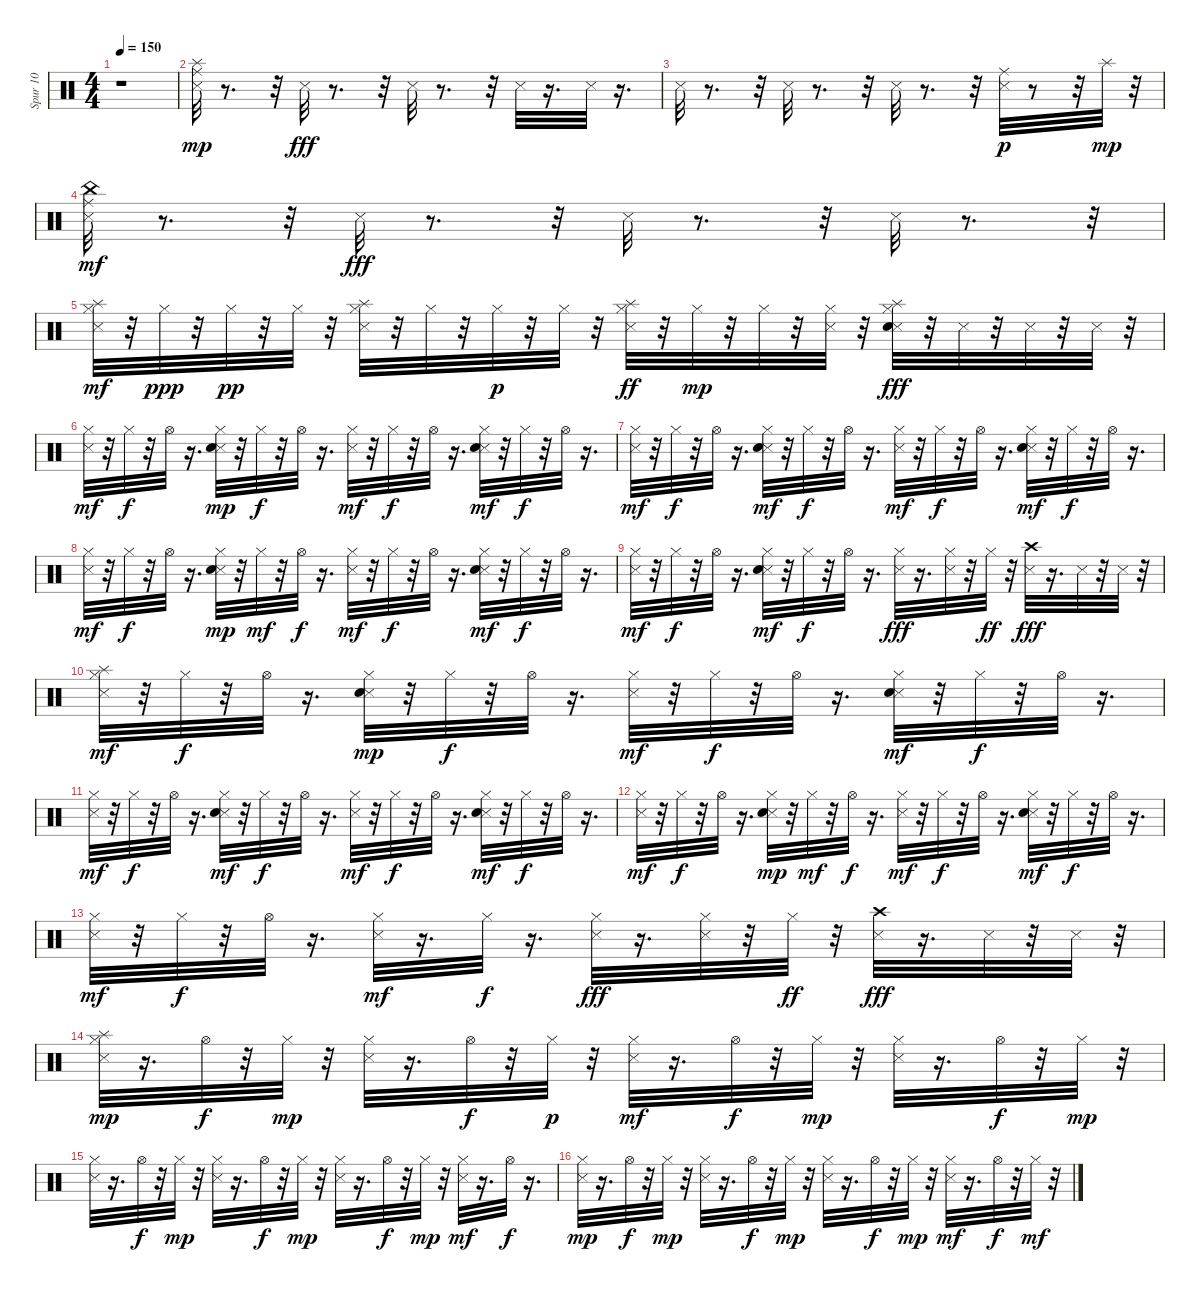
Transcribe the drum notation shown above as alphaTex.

\track ("Spur 10" "Spur 10") {instrument percussion}
\staff {score}
\articulation defaults
\ts (4 4)
\tempo 150
\clef neutral
\ks c
r.1{dy mp} |
("Metronome (hit)" "Ride (middle)" "Splash (hit)").32 r.8{d} r.32 "Metronome (hit)".32{dy fff} r.8{d} r.32 "Metronome (hit)".32 r.8{d} r.32 "Metronome (hit)".32 r.16{d} "Metronome (hit)".32 r.16{d} |
"Metronome (hit)".32 r.8{d} r.32 "Metronome (hit)".32 r.8{d} r.32 "Metronome (hit)".32 r.8{d} r.32 ("Metronome (hit)" "Ride (middle)").32{dy p} r.8 r.32 "Splash (hit)".32{dy mp} r.32 |
("Metronome (hit)" "Ride (middle)" "China (hit)").32{dy mf} r.8{d} r.32 "Metronome (hit)".32{dy fff} r.8{d} r.32 "Metronome (hit)".32 r.8{d} r.32 "Metronome (hit)".32 r.8{d} r.32 |
("Metronome (hit)" "Hi-Hat (closed)" "Splash (hit)").32{dy mf} r.32 "Hi-Hat (closed)".32{dy ppp} r.32 "Hi-Hat (closed)".32{dy pp} r.32 "Hi-Hat (closed)".32 r.32 ("Metronome (hit)" "Hi-Hat (closed)" "Splash (hit)").32 r.32 "Hi-Hat (closed)".32 r.32 "Hi-Hat (closed)".32{dy p} r.32 "Hi-Hat (closed)".32 r.32 ("Metronome (hit)" "Hi-Hat (closed)" "Splash (hit)").32{dy ff} r.32 "Hi-Hat (closed)".32{dy mp} r.32 "Hi-Hat (closed)".32 r.32 ("Metronome (hit)" "Hi-Hat (closed)").32 r.32 ("Metronome (hit)" "Hand Clap (hit)" "Hi-Hat (closed)" "Splash (hit)").32{dy fff} r.32 "Metronome (hit)".32 r.32 "Metronome (hit)".32 r.32 "Metronome (hit)".32 r.32 |
("Metronome (hit)" "Hi-Hat (closed)").32{dy mf} r.32 "Hi-Hat (closed)".32{dy f} r.32 "Hi-Hat (open)".32 r.16{d} ("Metronome (hit)" "Snare (hit) 2" "Hi-Hat (closed)").32{dy mp} r.32 "Hi-Hat (closed)".32{dy f} r.32 "Hi-Hat (open)".32 r.16{d} ("Metronome (hit)" "Hi-Hat (closed)").32{dy mf} r.32 "Hi-Hat (closed)".32{dy f} r.32 "Hi-Hat (open)".32 r.16{d} ("Metronome (hit)" "Snare (hit) 2" "Hi-Hat (closed)").32{dy mf} r.32 "Hi-Hat (closed)".32{dy f} r.32 "Hi-Hat (open)".32 r.16{d} |
("Metronome (hit)" "Hi-Hat (closed)").32{dy mf} r.32 "Hi-Hat (closed)".32{dy f} r.32 "Hi-Hat (open)".32 r.16{d} ("Metronome (hit)" "Snare (hit) 2" "Hi-Hat (closed)").32{dy mf} r.32 "Hi-Hat (closed)".32{dy f} r.32 "Hi-Hat (open)".32 r.16{d} ("Metronome (hit)" "Hi-Hat (closed)").32{dy mf} r.32 "Hi-Hat (closed)".32{dy f} r.32 "Hi-Hat (open)".32 r.16{d} ("Metronome (hit)" "Snare (hit) 2" "Hi-Hat (closed)").32{dy mf} r.32 "Hi-Hat (closed)".32{dy f} r.32 "Hi-Hat (open)".32 r.16{d} |
("Metronome (hit)" "Hi-Hat (closed)").32{dy mf} r.32 "Hi-Hat (closed)".32{dy f} r.32 "Hi-Hat (open)".32 r.16{d} ("Metronome (hit)" "Snare (hit) 2" "Hi-Hat (closed)").32{dy mp} r.32 "Hi-Hat (closed)".32{dy mf} r.32 "Hi-Hat (open)".32{dy f} r.16{d} ("Metronome (hit)" "Hi-Hat (closed)").32{dy mf} r.32 "Hi-Hat (closed)".32{dy f} r.32 "Hi-Hat (open)".32 r.16{d} ("Metronome (hit)" "Snare (hit) 2" "Hi-Hat (closed)").32{dy mf} r.32 "Hi-Hat (closed)".32{dy f} r.32 "Hi-Hat (open)".32 r.16{d} |
("Metronome (hit)" "Hi-Hat (closed)").32{dy mf} r.32 "Hi-Hat (closed)".32{dy f} r.32 "Hi-Hat (open)".32 r.16{d} ("Metronome (hit)" "Snare (hit) 2" "Hi-Hat (closed)").32{dy mf} r.32 "Hi-Hat (closed)".32{dy f} r.32 "Hi-Hat (open)".32 r.16{d} ("Metronome (hit)" "Hi-Hat (closed)").32{dy fff} r.16{d} ("Metronome (hit)" "Hi-Hat (closed)").32 r.32 "Hi-Hat (closed)".32{dy ff} r.32 ("Metronome (hit)" "Crash high (hit)").32{dy fff} r.16{d} "Metronome (hit)".32 r.32 "Metronome (hit)".32 r.32 |
("Splash (hit)" "Metronome (hit)" "Hi-Hat (closed)").32{dy mf} r.32 "Hi-Hat (closed)".32{dy f} r.32 "Hi-Hat (open)".32 r.16{d} ("Metronome (hit)" "Snare (hit) 2" "Hi-Hat (closed)").32{dy mp} r.32 "Hi-Hat (closed)".32{dy f} r.32 "Hi-Hat (open)".32 r.16{d} ("Metronome (hit)" "Hi-Hat (closed)").32{dy mf} r.32 "Hi-Hat (closed)".32{dy f} r.32 "Hi-Hat (open)".32 r.16{d} ("Metronome (hit)" "Snare (hit) 2" "Hi-Hat (closed)").32{dy mf} r.32 "Hi-Hat (closed)".32{dy f} r.32 "Hi-Hat (open)".32 r.16{d} |
("Metronome (hit)" "Hi-Hat (closed)").32{dy mf} r.32 "Hi-Hat (closed)".32{dy f} r.32 "Hi-Hat (open)".32 r.16{d} ("Metronome (hit)" "Snare (hit) 2" "Hi-Hat (closed)").32{dy mf} r.32 "Hi-Hat (closed)".32{dy f} r.32 "Hi-Hat (open)".32 r.16{d} ("Metronome (hit)" "Hi-Hat (closed)").32{dy mf} r.32 "Hi-Hat (closed)".32{dy f} r.32 "Hi-Hat (open)".32 r.16{d} ("Metronome (hit)" "Snare (hit) 2" "Hi-Hat (closed)").32{dy mf} r.32 "Hi-Hat (closed)".32{dy f} r.32 "Hi-Hat (open)".32 r.16{d} |
("Metronome (hit)" "Hi-Hat (closed)").32{dy mf} r.32 "Hi-Hat (closed)".32{dy f} r.32 "Hi-Hat (open)".32 r.16{d} ("Metronome (hit)" "Snare (hit) 2" "Hi-Hat (closed)").32{dy mp} r.32 "Hi-Hat (closed)".32{dy mf} r.32 "Hi-Hat (open)".32{dy f} r.16{d} ("Metronome (hit)" "Hi-Hat (closed)").32{dy mf} r.32 "Hi-Hat (closed)".32{dy f} r.32 "Hi-Hat (open)".32 r.16{d} ("Metronome (hit)" "Snare (hit) 2" "Hi-Hat (closed)").32{dy mf} r.32 "Hi-Hat (closed)".32{dy f} r.32 "Hi-Hat (open)".32 r.16{d} |
("Metronome (hit)" "Hi-Hat (closed)").32{dy mf} r.32 "Hi-Hat (closed)".32{dy f} r.32 "Hi-Hat (open)".32 r.16{d} ("Metronome (hit)" "Hi-Hat (closed)").32{dy mf} r.16{d} "Hi-Hat (closed)".32{dy f} r.16{d} ("Metronome (hit)" "Hi-Hat (closed)").32{dy fff} r.16{d} ("Metronome (hit)" "Hi-Hat (closed)").32 r.32 "Hi-Hat (closed)".32{dy ff} r.32 ("Metronome (hit)" "Crash high (hit)").32{dy fff} r.16{d} "Metronome (hit)".32 r.32 "Metronome (hit)".32 r.32 |
("Splash (hit)" "Metronome (hit)" "Hi-Hat (closed)").32{dy mp} r.16{d} "Hi-Hat (open)".32{dy f} r.32 "Hi-Hat (closed)".32{dy mp} r.32 ("Metronome (hit)" "Hi-Hat (closed)").32 r.16{d} "Hi-Hat (open)".32{dy f} r.32 "Hi-Hat (closed)".32{dy p} r.32 ("Metronome (hit)" "Hi-Hat (closed)").32{dy mf} r.16{d} "Hi-Hat (open)".32{dy f} r.32 "Hi-Hat (closed)".32{dy mp} r.32 ("Metronome (hit)" "Hi-Hat (closed)").32 r.16{d} "Hi-Hat (open)".32{dy f} r.32 "Hi-Hat (closed)".32{dy mp} r.32 |
("Metronome (hit)" "Hi-Hat (closed)").32 r.16{d} "Hi-Hat (open)".32{dy f} r.32 "Hi-Hat (closed)".32{dy mp} r.32 ("Metronome (hit)" "Hi-Hat (closed)").32 r.16{d} "Hi-Hat (open)".32{dy f} r.32 "Hi-Hat (closed)".32{dy mp} r.32 ("Metronome (hit)" "Hi-Hat (closed)").32 r.16{d} "Hi-Hat (open)".32{dy f} r.32 "Hi-Hat (closed)".32{dy mp} r.32 ("Metronome (hit)" "Hi-Hat (closed)").32{dy mf} r.16{d} "Hi-Hat (open)".32{dy f} r.16{d} |
("Metronome (hit)" "Hi-Hat (closed)").32{dy mp} r.16{d} "Hi-Hat (open)".32{dy f} r.32 "Hi-Hat (closed)".32{dy mp} r.32 ("Metronome (hit)" "Hi-Hat (closed)").32 r.16{d} "Hi-Hat (open)".32{dy f} r.32 "Hi-Hat (closed)".32{dy mp} r.32 ("Metronome (hit)" "Hi-Hat (closed)").32 r.16{d} "Hi-Hat (open)".32{dy f} r.32 "Hi-Hat (closed)".32{dy mp} r.32 ("Metronome (hit)" "Hi-Hat (closed)").32{dy mf} r.16{d} "Hi-Hat (open)".32{dy f} r.32 "Hi-Hat (closed)".32{dy mf} r.32
